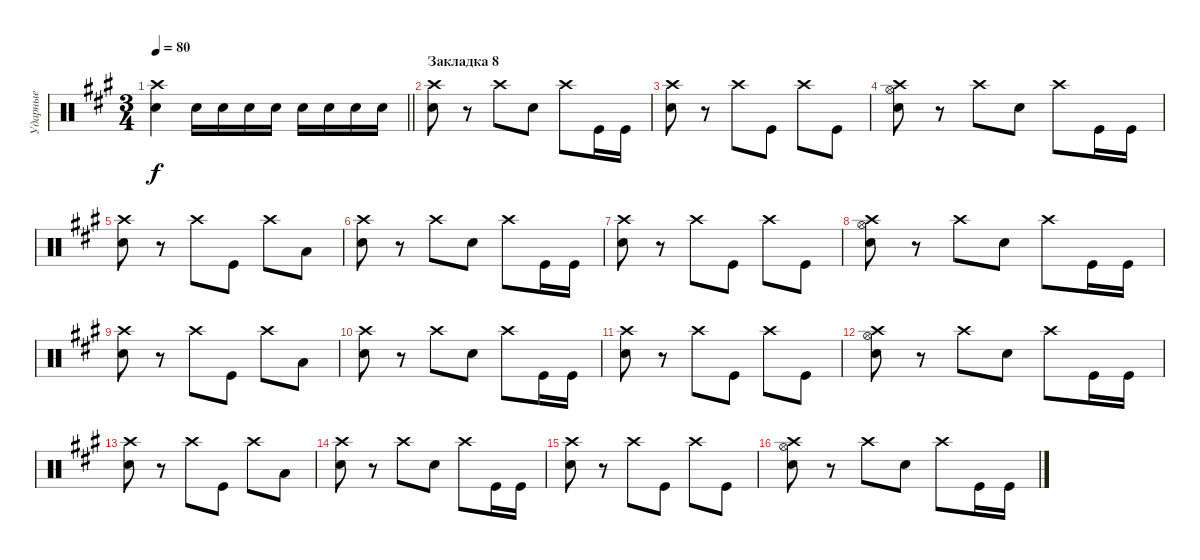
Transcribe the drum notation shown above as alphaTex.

\track ("Ударные" "Ударные") {instrument percussion}
\staff {score}
\articulation defaults
\ts (3 4)
\tempo 80
\clef neutral
\barLineRight lightlight
\ks f#minor
("Snare (hit) 2" "Crash high (hit)").4{dy f} "Snare (hit) 2".16 "Snare (hit) 2".16 "Snare (hit) 2".16 "Snare (hit) 2".16 "Snare (hit) 2".16 "Snare (hit) 2".16 "Snare (hit) 2".16 "Snare (hit) 2".16 |
\section ("" "Закладка 8")
("Snare (hit) 2" "Crash high (hit)").8 r.8 "Crash high (hit)".8 "Snare (hit) 2".8 "Crash high (hit)".8 "Kick (hit)".16 "Kick (hit)".16 |
("Snare (hit) 2" "Crash high (hit)").8 r.8 "Crash high (hit)".8 "Kick (hit)".8 "Crash high (hit)".8 "Kick (hit)".8 |
("Snare (hit) 2" "Hi-Hat (open)" "Crash high (hit)").8 r.8 "Crash high (hit)".8 "Snare (hit) 2".8 "Crash high (hit)".8 "Kick (hit)".16 "Kick (hit)".16 |
("Snare (hit) 2" "Crash high (hit)").8 r.8 "Crash high (hit)".8 "Kick (hit)".8 "Crash high (hit)".8 "Low Tom (hit)".8 |
("Snare (hit) 2" "Crash high (hit)").8 r.8 "Crash high (hit)".8 "Snare (hit) 2".8 "Crash high (hit)".8 "Kick (hit)".16 "Kick (hit)".16 |
("Snare (hit) 2" "Crash high (hit)").8 r.8 "Crash high (hit)".8 "Kick (hit)".8 "Crash high (hit)".8 "Kick (hit)".8 |
("Snare (hit) 2" "Hi-Hat (open)" "Crash high (hit)").8 r.8 "Crash high (hit)".8 "Snare (hit) 2".8 "Crash high (hit)".8 "Kick (hit)".16 "Kick (hit)".16 |
("Snare (hit) 2" "Crash high (hit)").8 r.8 "Crash high (hit)".8 "Kick (hit)".8 "Crash high (hit)".8 "Low Tom (hit)".8 |
("Snare (hit) 2" "Crash high (hit)").8 r.8 "Crash high (hit)".8 "Snare (hit) 2".8 "Crash high (hit)".8 "Kick (hit)".16 "Kick (hit)".16 |
("Snare (hit) 2" "Crash high (hit)").8 r.8 "Crash high (hit)".8 "Kick (hit)".8 "Crash high (hit)".8 "Kick (hit)".8 |
("Snare (hit) 2" "Hi-Hat (open)" "Crash high (hit)").8 r.8 "Crash high (hit)".8 "Snare (hit) 2".8 "Crash high (hit)".8 "Kick (hit)".16 "Kick (hit)".16 |
("Snare (hit) 2" "Crash high (hit)").8 r.8 "Crash high (hit)".8 "Kick (hit)".8 "Crash high (hit)".8 "Low Tom (hit)".8 |
("Snare (hit) 2" "Crash high (hit)").8 r.8 "Crash high (hit)".8 "Snare (hit) 2".8 "Crash high (hit)".8 "Kick (hit)".16 "Kick (hit)".16 |
("Snare (hit) 2" "Crash high (hit)").8 r.8 "Crash high (hit)".8 "Kick (hit)".8 "Crash high (hit)".8 "Kick (hit)".8 |
("Snare (hit) 2" "Hi-Hat (open)" "Crash high (hit)").8 r.8 "Crash high (hit)".8 "Snare (hit) 2".8 "Crash high (hit)".8 "Kick (hit)".16 "Kick (hit)".16
